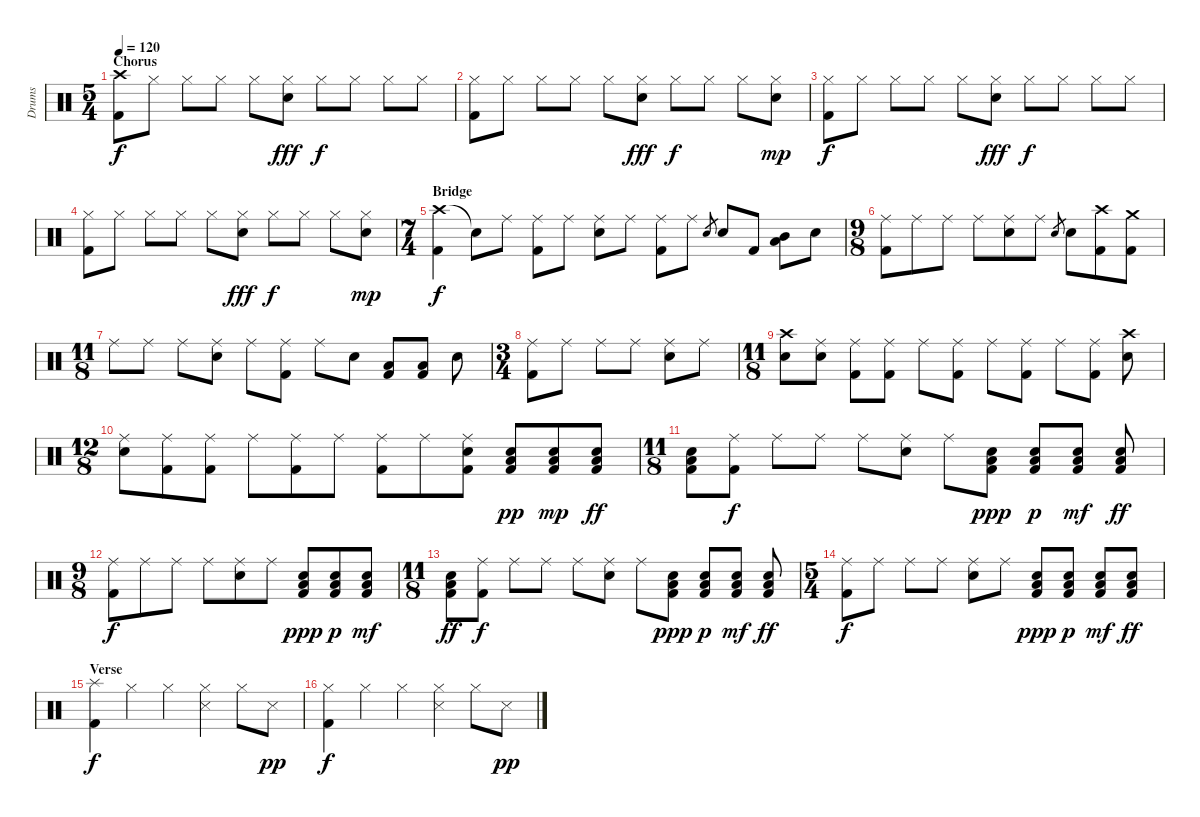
\track ("Drums" "Drums") {instrument percussion}
\staff {score}
\articulation defaults
\ts (5 4)
\section ("" "Chorus")
\tempo 120
\clef neutral
\ks c
("Crash high (hit)" "Kick (hit) 2").8{dy f} "Hi-Hat (closed)".8 "Hi-Hat (closed)".8 "Hi-Hat (closed)".8 "Hi-Hat (closed)".8 ("Hi-Hat (closed)" "Electric Snare (hit)").8{dy fff} "Hi-Hat (closed)".8{dy f} "Hi-Hat (closed)".8 "Hi-Hat (closed)".8 "Hi-Hat (closed)".8 |
("Hi-Hat (closed)" "Kick (hit) 2").8 "Hi-Hat (closed)".8 "Hi-Hat (closed)".8 "Hi-Hat (closed)".8 "Hi-Hat (closed)".8 ("Hi-Hat (closed)" "Electric Snare (hit)").8{dy fff} "Hi-Hat (closed)".8{dy f} "Hi-Hat (closed)".8 "Hi-Hat (closed)".8 ("Hi-Hat (closed)" "Electric Snare (hit)").8{dy mp} |
("Hi-Hat (closed)" "Kick (hit) 2").8{dy f} "Hi-Hat (closed)".8 "Hi-Hat (closed)".8 "Hi-Hat (closed)".8 "Hi-Hat (closed)".8 ("Hi-Hat (closed)" "Electric Snare (hit)").8{dy fff} "Hi-Hat (closed)".8{dy f} "Hi-Hat (closed)".8 "Hi-Hat (closed)".8 "Hi-Hat (closed)".8 |
("Hi-Hat (closed)" "Kick (hit) 2").8 "Hi-Hat (closed)".8 "Hi-Hat (closed)".8 "Hi-Hat (closed)".8 "Hi-Hat (closed)".8 ("Hi-Hat (closed)" "Electric Snare (hit)").8{dy fff} "Hi-Hat (closed)".8{dy f} "Hi-Hat (closed)".8 "Hi-Hat (closed)".8 ("Hi-Hat (closed)" "Electric Snare (hit)").8{dy mp} |
\ts (7 4)
\section ("" "Bridge")
("Crash high (hit)" "Kick (hit) 2").4{dy f} "Snare (hit)"{t}.8 "Ride (middle)".8 ("Ride (middle)" "Kick (hit) 2").8 "Ride (middle)".8 ("Ride (middle)" "Electric Snare (hit)").8 "Ride (middle)".8 ("Ride (middle)" "Kick (hit) 2").8 "Ride (middle)".8 "Electric Snare (hit)".8{gr} "Electric Snare (hit)".8 "Kick (hit) 2".8 ("Mid Tom (hit)" "Low Tom (hit)").8 "Electric Snare (hit)".8 |
\ts (9 8)
("Ride (middle)" "Kick (hit) 2").8 "Ride (middle)".8 "Ride (middle)".8 "Ride (middle)".8 ("Ride (middle)" "Electric Snare (hit)").8 "Ride (middle)".8 "Electric Snare (hit)".8{gr} "Electric Snare (hit)".8 ("Crash high (hit)" "Kick (hit) 2").8 ("Crash medium (hit)" "Kick (hit) 2").8 |
\ts (11 8)
"Ride (middle)".8 "Ride (middle)".8 "Ride (middle)".8 ("Ride (middle)" "Electric Snare (hit)").8 "Ride (middle)".8 ("Ride (middle)" "Kick (hit) 2").8 "Ride (middle)".8 "Electric Snare (hit)".8 ("Low Floor Tom (hit)" "Kick (hit) 2").8 ("Low Floor Tom (hit)" "Kick (hit) 2").8 "Electric Snare (hit)".8 |
\ts (3 4)
("Ride (middle)" "Kick (hit) 2").8 "Ride (middle)".8 "Ride (middle)".8 "Ride (middle)".8 ("Ride (middle)" "Electric Snare (hit)").8 "Ride (middle)".8 |
\ts (11 8)
("Crash high (hit)" "Electric Snare (hit)").8 ("Ride (middle)" "Electric Snare (hit)").8 ("Ride (middle)" "Kick (hit) 2").8 ("Ride (middle)" "Kick (hit) 2").8 "Ride (middle)".8 ("Ride (middle)" "Kick (hit) 2").8 "Ride (middle)".8 ("Ride (middle)" "Kick (hit) 2").8 "Ride (middle)".8 ("Ride (middle)" "Kick (hit) 2").8 ("Crash high (hit)" "Electric Snare (hit)").8 |
\ts (12 8)
("Ride (middle)" "Electric Snare (hit)").8 ("Ride (middle)" "Kick (hit) 2").8 ("Ride (middle)" "Kick (hit) 2").8 "Ride (middle)".8 ("Ride (middle)" "Kick (hit) 2").8 "Ride (middle)".8 ("Ride (middle)" "Kick (hit) 2").8 "Ride (middle)".8 ("Ride (middle)" "Electric Snare (hit)" "Kick (hit) 2").8 ("Electric Snare (hit)" "Low Floor Tom (hit)" "Kick (hit) 2").8{dy pp} ("Electric Snare (hit)" "Low Floor Tom (hit)" "Kick (hit) 2").8{dy mp} ("Electric Snare (hit)" "Low Floor Tom (hit)" "Kick (hit) 2").8{dy ff} |
\ts (11 8)
("Electric Snare (hit)" "Low Floor Tom (hit)" "Kick (hit) 2").8 ("Ride (middle)" "Kick (hit) 2").8{dy f} "Ride (middle)".8 "Ride (middle)".8 "Ride (middle)".8 ("Ride (middle)" "Electric Snare (hit)").8 "Ride (middle)".8 ("Electric Snare (hit)" "Low Floor Tom (hit)" "Kick (hit) 2").8{dy ppp} ("Electric Snare (hit)" "Low Floor Tom (hit)" "Kick (hit) 2").8{dy p} ("Electric Snare (hit)" "Low Floor Tom (hit)" "Kick (hit) 2").8{dy mf} ("Electric Snare (hit)" "Low Floor Tom (hit)" "Kick (hit) 2").8{dy ff} |
\ts (9 8)
("Ride (middle)" "Kick (hit) 2").8{dy f} "Ride (middle)".8 "Ride (middle)".8 "Ride (middle)".8 ("Ride (middle)" "Electric Snare (hit)").8 "Ride (middle)".8 ("Electric Snare (hit)" "Low Floor Tom (hit)" "Kick (hit) 2").8{dy ppp} ("Electric Snare (hit)" "Low Floor Tom (hit)" "Kick (hit) 2").8{dy p} ("Electric Snare (hit)" "Low Floor Tom (hit)" "Kick (hit) 2").8{dy mf} |
\ts (11 8)
("Electric Snare (hit)" "Low Floor Tom (hit)" "Kick (hit) 2").8{dy ff} ("Ride (middle)" "Kick (hit) 2").8{dy f} "Ride (middle)".8 "Ride (middle)".8 "Ride (middle)".8 ("Ride (middle)" "Electric Snare (hit)").8 "Ride (middle)".8 ("Electric Snare (hit)" "Low Floor Tom (hit)" "Kick (hit) 2").8{dy ppp} ("Electric Snare (hit)" "Low Floor Tom (hit)" "Kick (hit) 2").8{dy p} ("Electric Snare (hit)" "Low Floor Tom (hit)" "Kick (hit) 2").8{dy mf} ("Electric Snare (hit)" "Low Floor Tom (hit)" "Kick (hit) 2").8{dy ff} |
\ts (5 4)
("Ride (middle)" "Kick (hit) 2").8{dy f} "Ride (middle)".8 "Ride (middle)".8 "Ride (middle)".8 ("Ride (middle)" "Electric Snare (hit)").8 "Ride (middle)".8 ("Electric Snare (hit)" "Low Floor Tom (hit)" "Kick (hit) 2").8{dy ppp} ("Electric Snare (hit)" "Low Floor Tom (hit)" "Kick (hit) 2").8{dy p} ("Electric Snare (hit)" "Low Floor Tom (hit)" "Kick (hit) 2").8{dy mf} ("Electric Snare (hit)" "Low Floor Tom (hit)" "Kick (hit) 2").8{dy ff} |
\section ("" "Verse")
("Splash (hit)" "Kick (hit) 2").4{dy f} "Hi-Hat (closed)".4 "Hi-Hat (closed)".4 ("Hi-Hat (closed)" "Snare (side stick) 3").4 "Hi-Hat (closed)".8 "Snare (side stick) 3".8{dy pp} |
("Hi-Hat (closed)" "Kick (hit) 2").4{dy f} "Hi-Hat (closed)".4 "Hi-Hat (closed)".4 ("Hi-Hat (closed)" "Snare (side stick) 3").4 "Hi-Hat (closed)".8 "Snare (side stick) 3".8{dy pp}
